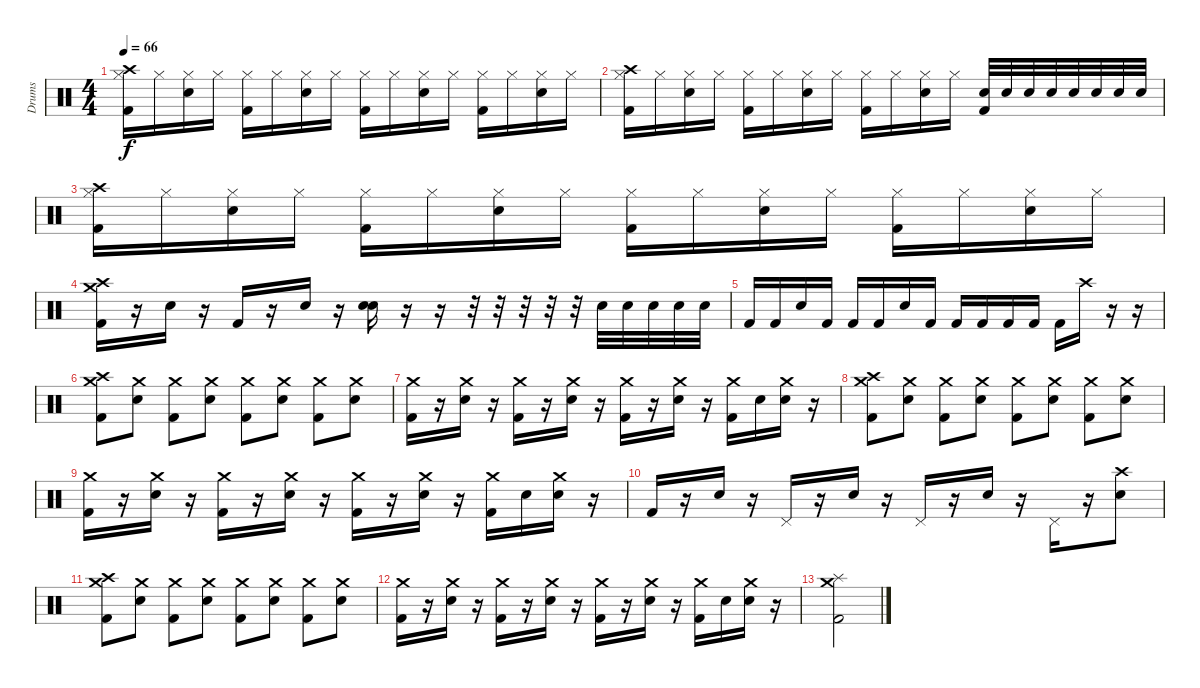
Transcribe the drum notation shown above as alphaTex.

\track ("Drums" "Drums") {instrument percussion}
\staff {score}
\articulation defaults
\ts (4 4)
\tempo 66
\clef neutral
\ks c
("Crash high (hit)" "Hi-Hat (closed)" "Kick (hit) 2").16{dy f} "Hi-Hat (closed)".16 ("Hi-Hat (closed)" "Snare (hit) 2").16 "Hi-Hat (closed)".16 ("Hi-Hat (closed)" "Kick (hit) 2").16 "Hi-Hat (closed)".16 ("Hi-Hat (closed)" "Snare (hit) 2").16 "Hi-Hat (closed)".16 ("Hi-Hat (closed)" "Kick (hit) 2").16 "Hi-Hat (closed)".16 ("Hi-Hat (closed)" "Snare (hit) 2").16 "Hi-Hat (closed)".16 ("Hi-Hat (closed)" "Kick (hit) 2").16 "Hi-Hat (closed)".16 ("Hi-Hat (closed)" "Snare (hit) 2").16 "Hi-Hat (closed)".16 |
("Crash high (hit)" "Hi-Hat (closed)" "Kick (hit) 2").16 "Hi-Hat (closed)".16 ("Hi-Hat (closed)" "Snare (hit) 2").16 "Hi-Hat (closed)".16 ("Hi-Hat (closed)" "Kick (hit) 2").16 "Hi-Hat (closed)".16 ("Hi-Hat (closed)" "Snare (hit) 2").16 "Hi-Hat (closed)".16 ("Hi-Hat (closed)" "Kick (hit) 2").16 "Hi-Hat (closed)".16 ("Hi-Hat (closed)" "Snare (hit) 2").16 "Hi-Hat (closed)".16 ("Snare (hit) 2" "Kick (hit) 2").32 "Snare (hit) 2".32 "Snare (hit) 2".32 "Snare (hit) 2".32 "Snare (hit) 2".32 "Snare (hit) 2".32 "Snare (hit) 2".32 "Snare (hit) 2".32 |
("Crash high (hit)" "Hi-Hat (closed)" "Kick (hit) 2").16 "Hi-Hat (closed)".16 ("Hi-Hat (closed)" "Snare (hit) 2").16 "Hi-Hat (closed)".16 ("Hi-Hat (closed)" "Kick (hit) 2").16 "Hi-Hat (closed)".16 ("Hi-Hat (closed)" "Snare (hit) 2").16 "Hi-Hat (closed)".16 ("Hi-Hat (closed)" "Kick (hit) 2").16 "Hi-Hat (closed)".16 ("Hi-Hat (closed)" "Snare (hit) 2").16 "Hi-Hat (closed)".16 ("Hi-Hat (closed)" "Kick (hit) 2").16 "Hi-Hat (closed)".16 ("Hi-Hat (closed)" "Snare (hit) 2").16 "Hi-Hat (closed)".16 |
("Crash medium (hit)" "Crash high (hit)" "Kick (hit) 2").16 r.16 "Snare (hit) 2".16 r.16 "Kick (hit) 2".16 r.16 "Snare (hit) 2".16 r.16 ("Snare (hit) 2" "Snare (hit) 2").16 r.16 r.16 r.32 r.32 r.32 r.32 r.32 "Snare (hit) 2".32 "Snare (hit) 2".32 "Snare (hit) 2".32 "Snare (hit) 2".32 "Snare (hit) 2".32 |
"Kick (hit) 2".16 "Kick (hit) 2".16 "Snare (hit) 2".16 "Kick (hit) 2".16 "Kick (hit) 2".16 "Kick (hit) 2".16 "Snare (hit) 2".16 "Kick (hit) 2".16 "Kick (hit) 2".16 "Kick (hit) 2".16 "Kick (hit) 2".16 "Kick (hit) 2".16 "Kick (hit) 2".16 "Crash high (hit)".16 r.16 r.16 |
("Crash high (hit)" "Crash medium (hit)" "Kick (hit) 2").8 ("Crash medium (hit)" "Snare (hit) 2").8 ("Crash medium (hit)" "Kick (hit) 2").8 ("Crash medium (hit)" "Snare (hit) 2").8 ("Crash medium (hit)" "Kick (hit) 2").8 ("Crash medium (hit)" "Snare (hit) 2").8 ("Crash medium (hit)" "Kick (hit) 2").8 ("Crash medium (hit)" "Snare (hit) 2").8 |
("Crash medium (hit)" "Kick (hit) 2").16 r.16 ("Crash medium (hit)" "Snare (hit) 2").16 r.16 ("Crash medium (hit)" "Kick (hit) 2").16 r.16 ("Crash medium (hit)" "Snare (hit) 2").16 r.16 ("Crash medium (hit)" "Kick (hit) 2").16 r.16 ("Crash medium (hit)" "Snare (hit) 2").16 r.16 ("Crash medium (hit)" "Kick (hit) 2").16 "Snare (hit) 2".16 ("Crash medium (hit)" "Snare (hit) 2").16 r.16 |
("Crash high (hit)" "Crash medium (hit)" "Kick (hit) 2").8 ("Crash medium (hit)" "Snare (hit) 2").8 ("Crash medium (hit)" "Kick (hit) 2").8 ("Crash medium (hit)" "Snare (hit) 2").8 ("Crash medium (hit)" "Kick (hit) 2").8 ("Crash medium (hit)" "Snare (hit) 2").8 ("Crash medium (hit)" "Kick (hit) 2").8 ("Crash medium (hit)" "Snare (hit) 2").8 |
("Crash medium (hit)" "Kick (hit) 2").16 r.16 ("Crash medium (hit)" "Snare (hit) 2").16 r.16 ("Crash medium (hit)" "Kick (hit) 2").16 r.16 ("Crash medium (hit)" "Snare (hit) 2").16 r.16 ("Crash medium (hit)" "Kick (hit) 2").16 r.16 ("Crash medium (hit)" "Snare (hit) 2").16 r.16 ("Crash medium (hit)" "Kick (hit) 2").16 "Snare (hit) 2".16 ("Crash medium (hit)" "Snare (hit) 2").16 r.16 |
"Kick (hit) 2".16 r.16 "Snare (hit) 2".16 r.16 "Pedal Hi-Hat (hit)".16 r.16 "Snare (hit) 2".16 r.16 "Pedal Hi-Hat (hit)".16 r.16 "Snare (hit) 2".16 r.16 "Pedal Hi-Hat (hit)".16 r.16 ("Crash high (hit)" "Snare (hit) 2").8 |
("Crash high (hit)" "Crash medium (hit)" "Kick (hit) 2").8 ("Crash medium (hit)" "Snare (hit) 2").8 ("Crash medium (hit)" "Kick (hit) 2").8 ("Crash medium (hit)" "Snare (hit) 2").8 ("Crash medium (hit)" "Kick (hit) 2").8 ("Crash medium (hit)" "Snare (hit) 2").8 ("Crash medium (hit)" "Kick (hit) 2").8 ("Crash medium (hit)" "Snare (hit) 2").8 |
("Crash medium (hit)" "Kick (hit) 2").16 r.16 ("Crash medium (hit)" "Snare (hit) 2").16 r.16 ("Crash medium (hit)" "Kick (hit) 2").16 r.16 ("Crash medium (hit)" "Snare (hit) 2").16 r.16 ("Crash medium (hit)" "Kick (hit) 2").16 r.16 ("Crash medium (hit)" "Snare (hit) 2").16 r.16 ("Crash medium (hit)" "Kick (hit) 2").16 "Snare (hit) 2".16 ("Crash medium (hit)" "Snare (hit) 2").16 r.16 |
("Crash medium (hit)" "Splash (hit)" "Kick (hit) 2").2
